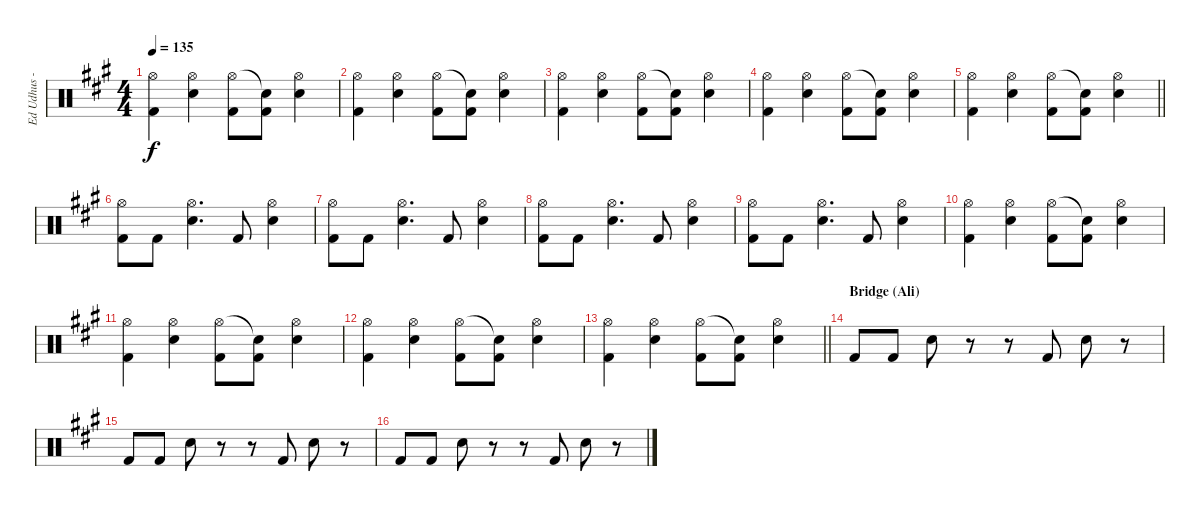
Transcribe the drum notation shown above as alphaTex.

\track ("Ed Udhus - Drums" "Ed Udhus -") {instrument percussion bank 127}
\staff {score}
\articulation defaults
\ts (4 4)
\tempo 135
\clef neutral
\ks a
("Hi-Hat (open)" "Kick (hit) 2").4{dy f} ("Hi-Hat (open)" "Snare (hit) 2").4 ("Hi-Hat (open)" "Kick (hit) 2").8 ("Snare (hit)"{t} "Kick (hit) 2").8 ("Hi-Hat (open)" "Snare (hit) 2").4 |
("Hi-Hat (open)" "Kick (hit) 2").4 ("Hi-Hat (open)" "Snare (hit) 2").4 ("Hi-Hat (open)" "Kick (hit) 2").8 ("Snare (hit)"{t} "Kick (hit) 2").8 ("Hi-Hat (open)" "Snare (hit) 2").4 |
("Hi-Hat (open)" "Kick (hit) 2").4 ("Hi-Hat (open)" "Snare (hit) 2").4 ("Hi-Hat (open)" "Kick (hit) 2").8 ("Snare (hit)"{t} "Kick (hit) 2").8 ("Hi-Hat (open)" "Snare (hit) 2").4 |
("Hi-Hat (open)" "Kick (hit) 2").4 ("Hi-Hat (open)" "Snare (hit) 2").4 ("Hi-Hat (open)" "Kick (hit) 2").8 ("Snare (hit)"{t} "Kick (hit) 2").8 ("Hi-Hat (open)" "Snare (hit) 2").4 |
\barLineRight lightlight
("Hi-Hat (open)" "Kick (hit) 2").4 ("Hi-Hat (open)" "Snare (hit) 2").4 ("Hi-Hat (open)" "Kick (hit) 2").8 ("Snare (hit)"{t} "Kick (hit) 2").8 ("Hi-Hat (open)" "Snare (hit) 2").4 |
("Hi-Hat (open)" "Kick (hit) 2").8 "Kick (hit) 2".8 ("Hi-Hat (open)" "Snare (hit) 2").4{d} "Kick (hit) 2".8 ("Hi-Hat (open)" "Snare (hit) 2").4 |
("Hi-Hat (open)" "Kick (hit) 2").8 "Kick (hit) 2".8 ("Hi-Hat (open)" "Snare (hit) 2").4{d} "Kick (hit) 2".8 ("Hi-Hat (open)" "Snare (hit) 2").4 |
("Hi-Hat (open)" "Kick (hit) 2").8 "Kick (hit) 2".8 ("Hi-Hat (open)" "Snare (hit) 2").4{d} "Kick (hit) 2".8 ("Hi-Hat (open)" "Snare (hit) 2").4 |
("Hi-Hat (open)" "Kick (hit) 2").8 "Kick (hit) 2".8 ("Hi-Hat (open)" "Snare (hit) 2").4{d} "Kick (hit) 2".8 ("Hi-Hat (open)" "Snare (hit) 2").4 |
("Hi-Hat (open)" "Kick (hit) 2").4 ("Hi-Hat (open)" "Snare (hit) 2").4 ("Hi-Hat (open)" "Kick (hit) 2").8 ("Snare (hit)"{t} "Kick (hit) 2").8 ("Hi-Hat (open)" "Snare (hit) 2").4 |
("Hi-Hat (open)" "Kick (hit) 2").4 ("Hi-Hat (open)" "Snare (hit) 2").4 ("Hi-Hat (open)" "Kick (hit) 2").8 ("Snare (hit)"{t} "Kick (hit) 2").8 ("Hi-Hat (open)" "Snare (hit) 2").4 |
("Hi-Hat (open)" "Kick (hit) 2").4 ("Hi-Hat (open)" "Snare (hit) 2").4 ("Hi-Hat (open)" "Kick (hit) 2").8 ("Snare (hit)"{t} "Kick (hit) 2").8 ("Hi-Hat (open)" "Snare (hit) 2").4 |
\barLineRight lightlight
("Hi-Hat (open)" "Kick (hit) 2").4 ("Hi-Hat (open)" "Snare (hit) 2").4 ("Hi-Hat (open)" "Kick (hit) 2").8 ("Snare (hit)"{t} "Kick (hit) 2").8 ("Hi-Hat (open)" "Snare (hit) 2").4 |
\section ("" "Bridge (Ali)")
"Kick (hit) 2".8 "Kick (hit) 2".8 "Snare (hit) 2".8 r.8 r.8 "Kick (hit) 2".8 "Snare (hit) 2".8 r.8 |
"Kick (hit) 2".8 "Kick (hit) 2".8 "Snare (hit) 2".8 r.8 r.8 "Kick (hit) 2".8 "Snare (hit) 2".8 r.8 |
"Kick (hit) 2".8 "Kick (hit) 2".8 "Snare (hit) 2".8 r.8 r.8 "Kick (hit) 2".8 "Snare (hit) 2".8 r.8
